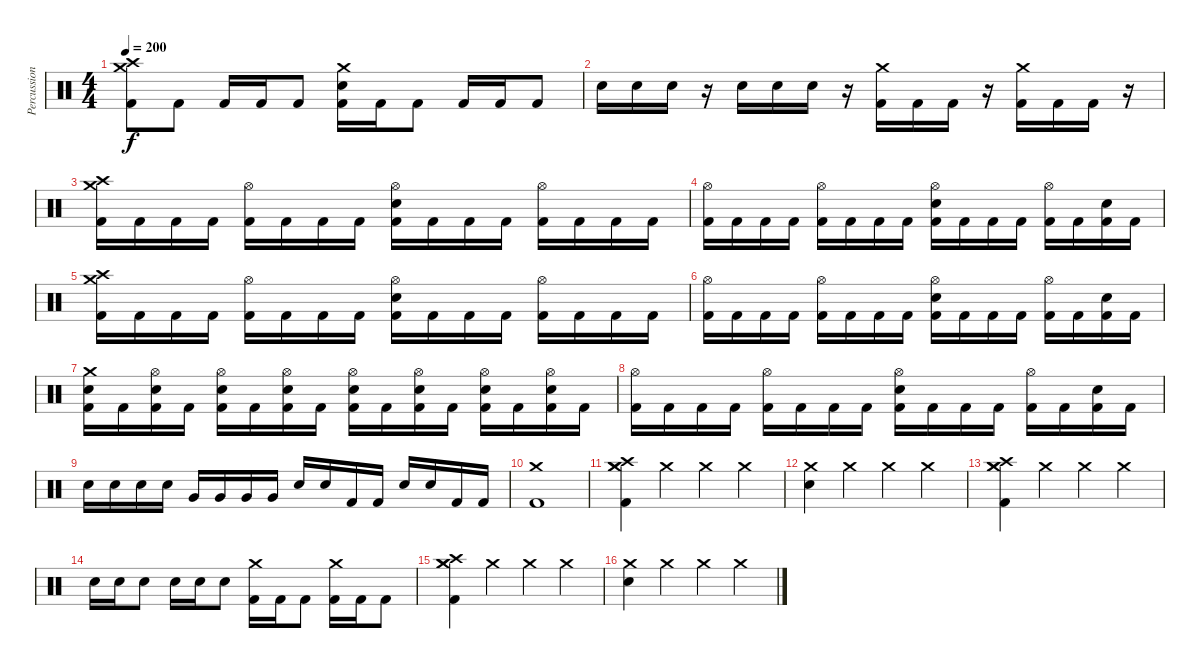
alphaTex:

\track ("Percussion" "Percussion") {instrument percussion}
\staff {score}
\articulation defaults
\ts (4 4)
\tempo 200
\clef neutral
\ks c
("Crash high (hit)" "Crash medium (hit)" "Kick (hit) 2").8{dy f} "Kick (hit) 2".8 "Kick (hit) 2".16 "Kick (hit) 2".16 "Kick (hit) 2".8 ("Crash medium (hit)" "Snare (hit) 2" "Kick (hit) 2").16 "Kick (hit) 2".16 "Kick (hit) 2".8 "Kick (hit) 2".16 "Kick (hit) 2".16 "Kick (hit) 2".8 |
"Snare (hit) 2".16 "Snare (hit) 2".16 "Snare (hit) 2".16 r.16 "Snare (hit) 2".16 "Snare (hit) 2".16 "Snare (hit) 2".16 r.16 ("Crash medium (hit)" "Kick (hit) 2").16 "Kick (hit) 2".16 "Kick (hit) 2".16 r.16 ("Crash medium (hit)" "Kick (hit) 2").16 "Kick (hit) 2".16 "Kick (hit) 2".16 r.16 |
("Crash high (hit)" "Crash medium (hit)" "Kick (hit) 2").16 "Kick (hit) 2".16 "Kick (hit) 2".16 "Kick (hit) 2".16 ("Hi-Hat (open)" "Kick (hit) 2").16 "Kick (hit) 2".16 "Kick (hit) 2".16 "Kick (hit) 2".16 ("Hi-Hat (open)" "Snare (hit) 2" "Kick (hit) 2").16 "Kick (hit) 2".16 "Kick (hit) 2".16 "Kick (hit) 2".16 ("Hi-Hat (open)" "Kick (hit) 2").16 "Kick (hit) 2".16 "Kick (hit) 2".16 "Kick (hit) 2".16 |
("Hi-Hat (open)" "Kick (hit) 2").16 "Kick (hit) 2".16 "Kick (hit) 2".16 "Kick (hit) 2".16 ("Hi-Hat (open)" "Kick (hit) 2").16 "Kick (hit) 2".16 "Kick (hit) 2".16 "Kick (hit) 2".16 ("Hi-Hat (open)" "Snare (hit) 2" "Kick (hit) 2").16 "Kick (hit) 2".16 "Kick (hit) 2".16 "Kick (hit) 2".16 ("Hi-Hat (open)" "Kick (hit) 2").16 "Kick (hit) 2".16 ("Snare (hit) 2" "Kick (hit) 2").16 "Kick (hit) 2".16 |
("Crash high (hit)" "Crash medium (hit)" "Kick (hit) 2").16 "Kick (hit) 2".16 "Kick (hit) 2".16 "Kick (hit) 2".16 ("Hi-Hat (open)" "Kick (hit) 2").16 "Kick (hit) 2".16 "Kick (hit) 2".16 "Kick (hit) 2".16 ("Hi-Hat (open)" "Snare (hit) 2" "Kick (hit) 2").16 "Kick (hit) 2".16 "Kick (hit) 2".16 "Kick (hit) 2".16 ("Hi-Hat (open)" "Kick (hit) 2").16 "Kick (hit) 2".16 "Kick (hit) 2".16 "Kick (hit) 2".16 |
("Hi-Hat (open)" "Kick (hit) 2").16 "Kick (hit) 2".16 "Kick (hit) 2".16 "Kick (hit) 2".16 ("Hi-Hat (open)" "Kick (hit) 2").16 "Kick (hit) 2".16 "Kick (hit) 2".16 "Kick (hit) 2".16 ("Hi-Hat (open)" "Snare (hit) 2" "Kick (hit) 2").16 "Kick (hit) 2".16 "Kick (hit) 2".16 "Kick (hit) 2".16 ("Hi-Hat (open)" "Kick (hit) 2").16 "Kick (hit) 2".16 ("Snare (hit) 2" "Kick (hit) 2").16 "Kick (hit) 2".16 |
("Crash medium (hit)" "Snare (hit) 2" "Kick (hit) 2").16 "Kick (hit) 2".16 ("Hi-Hat (open)" "Snare (hit) 2" "Kick (hit) 2").16 "Kick (hit) 2".16 ("Hi-Hat (open)" "Snare (hit) 2" "Kick (hit) 2").16 "Kick (hit) 2".16 ("Hi-Hat (open)" "Snare (hit) 2" "Kick (hit) 2").16 "Kick (hit) 2".16 ("Hi-Hat (open)" "Snare (hit) 2" "Kick (hit) 2").16 "Kick (hit) 2".16 ("Hi-Hat (open)" "Snare (hit) 2" "Kick (hit) 2").16 "Kick (hit) 2".16 ("Hi-Hat (open)" "Snare (hit) 2" "Kick (hit) 2").16 "Kick (hit) 2".16 ("Hi-Hat (open)" "Snare (hit) 2" "Kick (hit) 2").16 "Kick (hit) 2".16 |
("Hi-Hat (open)" "Kick (hit) 2").16 "Kick (hit) 2".16 "Kick (hit) 2".16 "Kick (hit) 2".16 ("Hi-Hat (open)" "Kick (hit) 2").16 "Kick (hit) 2".16 "Kick (hit) 2".16 "Kick (hit) 2".16 ("Hi-Hat (open)" "Snare (hit) 2" "Kick (hit) 2").16 "Kick (hit) 2".16 "Kick (hit) 2".16 "Kick (hit) 2".16 ("Hi-Hat (open)" "Kick (hit) 2").16 "Kick (hit) 2".16 ("Snare (hit) 2" "Kick (hit) 2").16 "Kick (hit) 2".16 |
"Snare (hit) 2".16 "Snare (hit) 2".16 "Snare (hit) 2".16 "Snare (hit) 2".16 "Very Low Tom (hit)".16 "Very Low Tom (hit)".16 "Very Low Tom (hit)".16 "Very Low Tom (hit)".16 "Snare (hit) 2".16 "Snare (hit) 2".16 "Kick (hit) 2".16 "Kick (hit) 2".16 "Snare (hit) 2".16 "Snare (hit) 2".16 "Kick (hit) 2".16 "Kick (hit) 2".16 |
("Crash medium (hit)" "Kick (hit) 2").1 |
("Crash high (hit)" "Crash medium (hit)" "Crash medium (hit)" "Kick (hit) 2").4 "Crash medium (hit)".4 "Crash medium (hit)".4 "Crash medium (hit)".4 |
("Crash medium (hit)" "Snare (hit) 2").4 "Crash medium (hit)".4 "Crash medium (hit)".4 "Crash medium (hit)".4 |
("Crash high (hit)" "Crash medium (hit)" "Crash medium (hit)" "Kick (hit) 2").4 "Crash medium (hit)".4 "Crash medium (hit)".4 "Crash medium (hit)".4 |
"Snare (hit) 2".16 "Snare (hit) 2".16 "Snare (hit) 2".8 "Snare (hit) 2".16 "Snare (hit) 2".16 "Snare (hit) 2".8 ("Crash medium (hit)" "Kick (hit) 2").16 "Kick (hit) 2".16 "Kick (hit) 2".8 ("Crash medium (hit)" "Kick (hit) 2").16 "Kick (hit) 2".16 "Kick (hit) 2".8 |
("Crash high (hit)" "Crash medium (hit)" "Crash medium (hit)" "Kick (hit) 2").4 "Crash medium (hit)".4 "Crash medium (hit)".4 "Crash medium (hit)".4 |
("Crash medium (hit)" "Snare (hit) 2").4 "Crash medium (hit)".4 "Crash medium (hit)".4 "Crash medium (hit)".4
